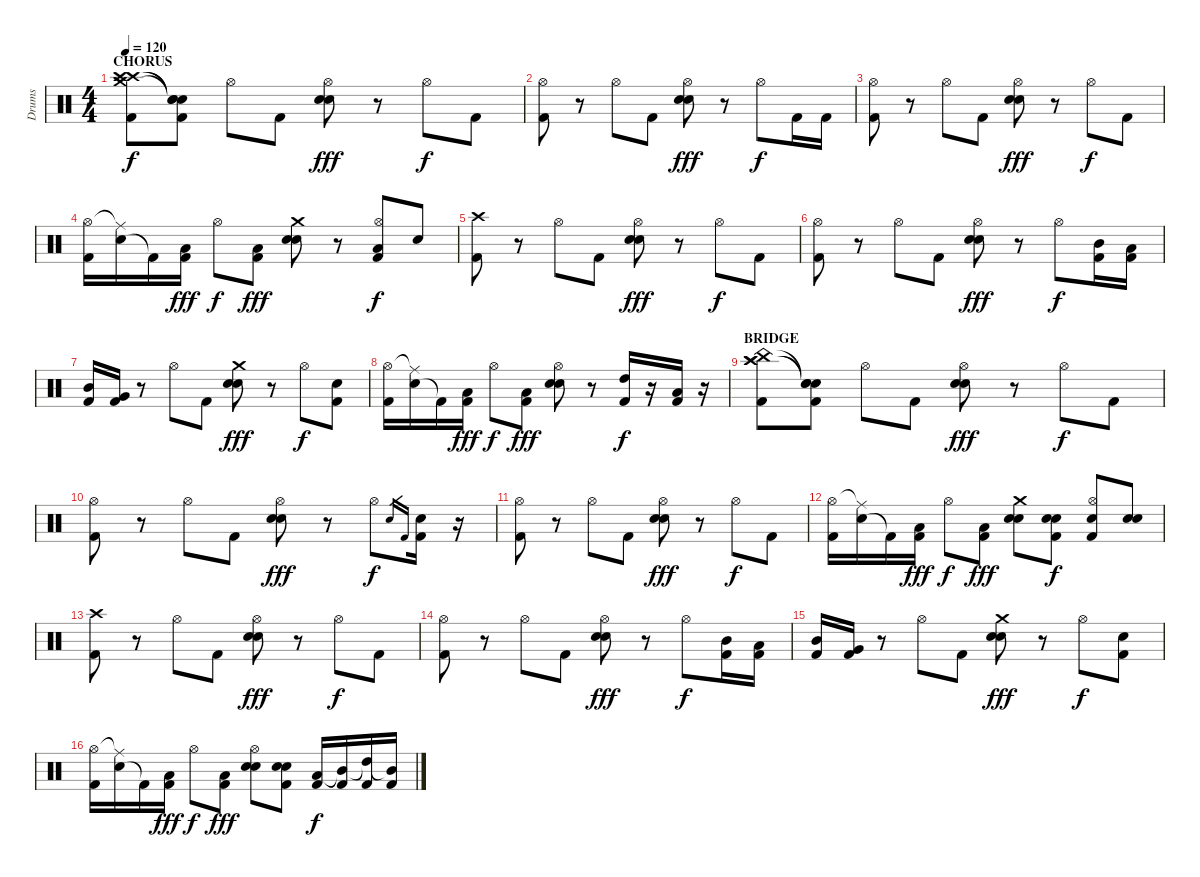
\track ("Drums" "Drums") {instrument percussion}
\staff {score}
\articulation defaults
\ts (4 4)
\section ("" "CHORUS")
\tempo 120
\clef neutral
\ks c
("Crash medium (hit)" "Crash high (hit)" "Kick (hit) 2" "Crash high (hit)").8{dy f} ("Snare (hit)"{t} "Snare (hit)"{t} "Kick (hit) 2" "Snare (hit)"{t}).8 "Hi-Hat (open)".8 "Kick (hit) 2".8 ("Electric Snare (hit)" "Electric Snare (hit)" "Hi-Hat (open)").8{dy fff} r.8 "Hi-Hat (open)".8{dy f} "Kick (hit) 2".8 |
("Kick (hit) 2" "Hi-Hat (open)").8 r.8 "Hi-Hat (open)".8 "Kick (hit) 2".8 ("Electric Snare (hit)" "Electric Snare (hit)" "Hi-Hat (open)").8{dy fff} r.8 "Hi-Hat (open)".8{dy f} "Kick (hit) 2".16 "Kick (hit) 2".16 |
("Kick (hit) 2" "Hi-Hat (open)").8 r.8 "Hi-Hat (open)".8 "Kick (hit) 2".8 ("Electric Snare (hit)" "Electric Snare (hit)" "Hi-Hat (open)").8{dy fff} r.8 "Hi-Hat (open)".8{dy f} "Kick (hit) 2".8 |
("Kick (hit) 2" "Hi-Hat (open)").16 ("Electric Snare (hit)" "Ride (middle)"{t}).16 "Kick (hit) 2"{t}.16 ("Low Floor Tom (hit)" "Kick (hit) 2").16{dy fff} "Hi-Hat (open)".8{dy f} ("Low Floor Tom (hit)" "Kick (hit) 2").8{dy fff} ("Electric Snare (hit)" "Electric Snare (hit)" "Crash medium (hit)").8 r.8 ("Low Floor Tom (hit)" "Kick (hit) 2" "Hi-Hat (open)").8{dy f} "Electric Snare (hit)".8 |
("Kick (hit) 2" "Crash high (hit)").8 r.8 "Hi-Hat (open)".8 "Kick (hit) 2".8 ("Electric Snare (hit)" "Electric Snare (hit)" "Hi-Hat (open)").8{dy fff} r.8 "Hi-Hat (open)".8{dy f} "Kick (hit) 2".8 |
("Kick (hit) 2" "Hi-Hat (open)").8 r.8 "Hi-Hat (open)".8 "Kick (hit) 2".8 ("Electric Snare (hit)" "Electric Snare (hit)" "Hi-Hat (open)").8{dy fff} r.8 "Hi-Hat (open)".8{dy f} ("Mid Tom (hit)" "Kick (hit) 2").16 ("Low Tom (hit)" "Kick (hit) 2").16 |
("Mid Tom (hit)" "Kick (hit) 2").16 ("Very Low Tom (hit)" "Kick (hit) 2").16 r.8 "Hi-Hat (open)".8 "Kick (hit) 2".8 ("Electric Snare (hit)" "Electric Snare (hit)" "Crash medium (hit)").8{dy fff} r.8 "Hi-Hat (open)".8{dy f} ("Electric Snare (hit)" "Kick (hit) 2").8 |
("Kick (hit) 2" "Hi-Hat (open)").16 ("Electric Snare (hit)" "Ride (middle)"{t}).16 "Kick (hit) 2"{t}.16 ("Low Floor Tom (hit)" "Kick (hit) 2").16{dy fff} "Hi-Hat (open)".8{dy f} ("Low Floor Tom (hit)" "Kick (hit) 2").8{dy fff} ("Electric Snare (hit)" "Electric Snare (hit)" "Hi-Hat (open)").8 r.8 ("High Tom (hit)" "Kick (hit) 2").16{dy f} r.16 ("Low Tom (hit)" "Kick (hit) 2").16 r.16 |
\section ("" "BRIDGE")
("China (hit)" "Crash high (hit)" "Kick (hit) 2" "Crash high (hit)").8 ("Snare (hit)"{t} "Snare (hit)"{t} "Kick (hit) 2" "Snare (hit)"{t}).8 "Hi-Hat (open)".8 "Kick (hit) 2".8 ("Electric Snare (hit)" "Electric Snare (hit)" "Hi-Hat (open)").8{dy fff} r.8 "Hi-Hat (open)".8{dy f} "Kick (hit) 2".8 |
("Kick (hit) 2" "Hi-Hat (open)").8 r.8 "Hi-Hat (open)".8 "Kick (hit) 2".8 ("Electric Snare (hit)" "Electric Snare (hit)" "Hi-Hat (open)").8{dy fff} r.8 "Hi-Hat (open)".8{dy f} "Electric Snare (hit)".16{gr} "Kick (hit) 2".16{gr} ("Electric Snare (hit)" "Kick (hit) 2").16 r.16 |
("Kick (hit) 2" "Hi-Hat (open)").8 r.8 "Hi-Hat (open)".8 "Kick (hit) 2".8 ("Electric Snare (hit)" "Electric Snare (hit)" "Hi-Hat (open)").8{dy fff} r.8 "Hi-Hat (open)".8{dy f} "Kick (hit) 2".8 |
("Kick (hit) 2" "Hi-Hat (open)").16 ("Electric Snare (hit)" "Ride (middle)"{t}).16 "Kick (hit) 2"{t}.16 ("Low Floor Tom (hit)" "Kick (hit) 2").16{dy fff} "Hi-Hat (open)".8{dy f} ("Low Floor Tom (hit)" "Kick (hit) 2").8{dy fff} ("Electric Snare (hit)" "Electric Snare (hit)" "Crash medium (hit)").8 ("Electric Snare (hit)" "Electric Snare (hit)" "Kick (hit) 2").8{dy f} ("Electric Snare (hit)" "Kick (hit) 2" "Hi-Hat (open)").8 ("Electric Snare (hit)" "Electric Snare (hit)").8 |
("Kick (hit) 2" "Crash high (hit)").8 r.8 "Hi-Hat (open)".8 "Kick (hit) 2".8 ("Electric Snare (hit)" "Electric Snare (hit)" "Hi-Hat (open)").8{dy fff} r.8 "Hi-Hat (open)".8{dy f} "Kick (hit) 2".8 |
("Kick (hit) 2" "Hi-Hat (open)").8 r.8 "Hi-Hat (open)".8 "Kick (hit) 2".8 ("Electric Snare (hit)" "Electric Snare (hit)" "Hi-Hat (open)").8{dy fff} r.8 "Hi-Hat (open)".8{dy f} ("Mid Tom (hit)" "Kick (hit) 2").16 ("Low Tom (hit)" "Kick (hit) 2").16 |
("Mid Tom (hit)" "Kick (hit) 2").16 ("Very Low Tom (hit)" "Kick (hit) 2").16 r.8 "Hi-Hat (open)".8 "Kick (hit) 2".8 ("Electric Snare (hit)" "Electric Snare (hit)" "Crash medium (hit)").8{dy fff} r.8 "Hi-Hat (open)".8{dy f} ("Electric Snare (hit)" "Kick (hit) 2").8 |
("Kick (hit) 2" "Hi-Hat (open)").16 ("Electric Snare (hit)" "Ride (middle)"{t}).16 "Kick (hit) 2"{t}.16 ("Low Floor Tom (hit)" "Kick (hit) 2").16{dy fff} "Hi-Hat (open)".8{dy f} ("Low Floor Tom (hit)" "Kick (hit) 2").8{dy fff} ("Electric Snare (hit)" "Electric Snare (hit)" "Hi-Hat (open)").8 ("Electric Snare (hit)" "Electric Snare (hit)" "Kick (hit) 2").8 ("Low Tom (hit)" "Kick (hit) 2").16{dy f} ("Mid Tom (hit)"{t} "Kick (hit) 2").16 ("High Tom (hit)"{t} "Kick (hit) 2").16 ("Mid Tom (hit)"{t} "Kick (hit) 2").16
